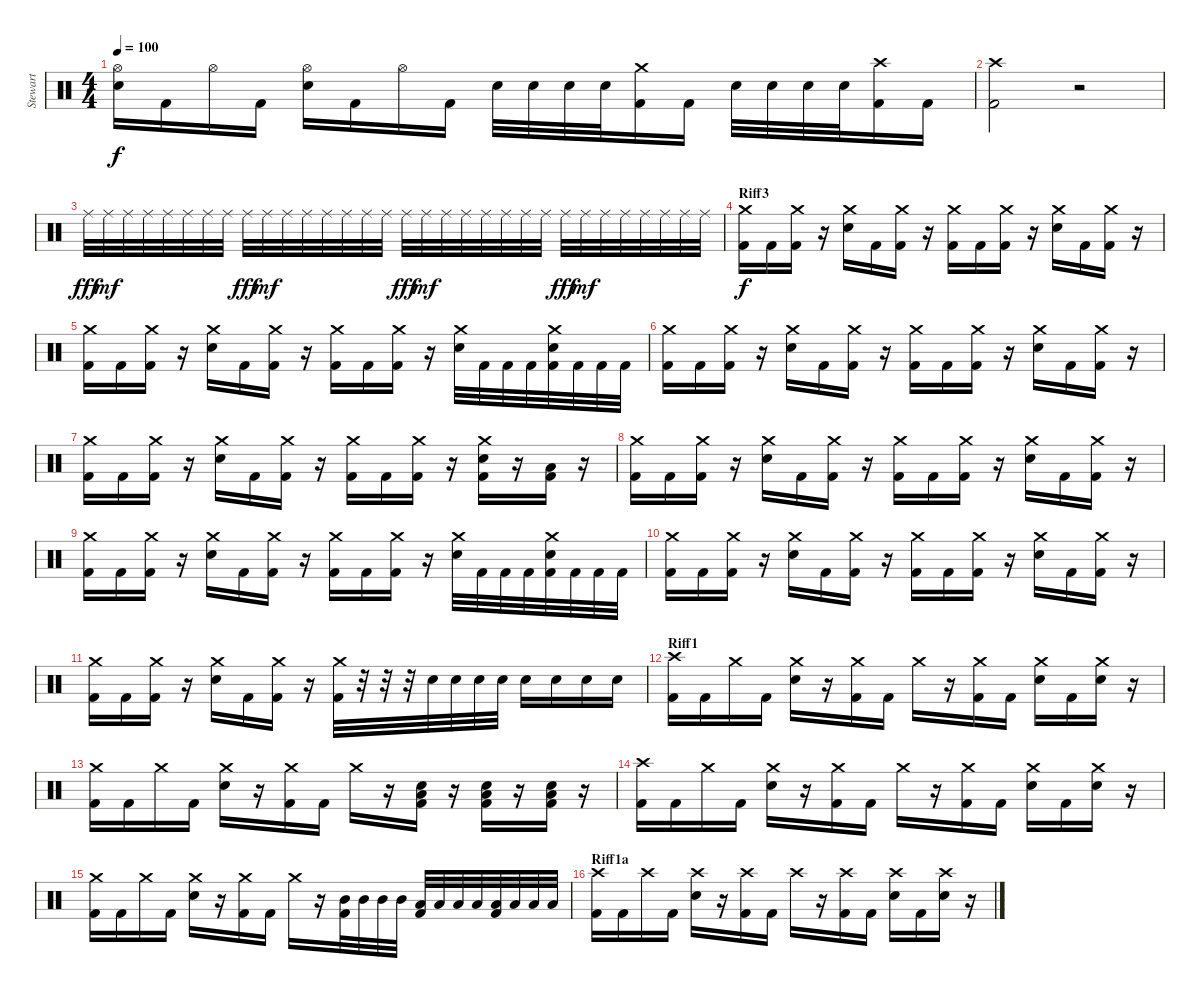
\track ("Stewart" "Stewart") {instrument percussion}
\staff {score}
\articulation defaults
\ts (4 4)
\tempo 100
\clef neutral
\ks c
("Hi-Hat (open)" "Snare (hit) 2").16{dy f} "Kick (hit) 2".16 "Hi-Hat (open)".16 "Kick (hit) 2".16 ("Hi-Hat (open)" "Snare (hit) 2").16 "Kick (hit) 2".16 "Hi-Hat (open)".16 "Kick (hit) 2".16 "Snare (hit) 2".32 "Snare (hit) 2".32 "Snare (hit) 2".32 "Snare (hit) 2".32 ("Crash medium (hit)" "Kick (hit) 2").16 "Kick (hit) 2".16 "Snare (hit) 2".32 "Snare (hit) 2".32 "Snare (hit) 2".32 "Snare (hit) 2".32 ("Crash high (hit)" "Kick (hit) 2").16 "Kick (hit) 2".16 |
("Crash high (hit)" "Kick (hit) 2").2 r.2 |
"Ride (middle)".32{dy fff} "Ride (middle)".32{dy mf} "Ride (middle)".32 "Ride (middle)".32 "Ride (middle)".32 "Ride (middle)".32 "Ride (middle)".32 "Ride (middle)".32 "Ride (middle)".32{dy fff} "Ride (middle)".32{dy mf} "Ride (middle)".32 "Ride (middle)".32 "Ride (middle)".32 "Ride (middle)".32 "Ride (middle)".32 "Ride (middle)".32 "Ride (middle)".32{dy fff} "Ride (middle)".32{dy mf} "Ride (middle)".32 "Ride (middle)".32 "Ride (middle)".32 "Ride (middle)".32 "Ride (middle)".32 "Ride (middle)".32 "Ride (middle)".32{dy fff} "Ride (middle)".32{dy mf} "Ride (middle)".32 "Ride (middle)".32 "Ride (middle)".32 "Ride (middle)".32 "Ride (middle)".32 "Ride (middle)".32 |
\section ("" "Riff3")
("Crash medium (hit)" "Kick (hit) 2").16{dy f} "Kick (hit) 2".16 ("Crash medium (hit)" "Kick (hit) 2").16 r.16 ("Crash medium (hit)" "Snare (hit) 2").16 "Kick (hit) 2".16 ("Crash medium (hit)" "Kick (hit) 2").16 r.16 ("Crash medium (hit)" "Kick (hit) 2").16 "Kick (hit) 2".16 ("Crash medium (hit)" "Kick (hit) 2").16 r.16 ("Crash medium (hit)" "Snare (hit) 2").16 "Kick (hit) 2".16 ("Crash medium (hit)" "Kick (hit) 2").16 r.16 |
("Crash medium (hit)" "Kick (hit) 2").16 "Kick (hit) 2".16 ("Crash medium (hit)" "Kick (hit) 2").16 r.16 ("Crash medium (hit)" "Snare (hit) 2").16 "Kick (hit) 2".16 ("Crash medium (hit)" "Kick (hit) 2").16 r.16 ("Crash medium (hit)" "Kick (hit) 2").16 "Kick (hit) 2".16 ("Crash medium (hit)" "Kick (hit) 2").16 r.16 ("Crash medium (hit)" "Snare (hit) 2").32 "Kick (hit) 2".32 "Kick (hit) 2".32 "Kick (hit) 2".32 ("Crash medium (hit)" "Snare (hit) 2" "Kick (hit) 2").32 "Kick (hit) 2".32 "Kick (hit) 2".32 "Kick (hit) 2".32 |
("Crash medium (hit)" "Kick (hit) 2").16 "Kick (hit) 2".16 ("Crash medium (hit)" "Kick (hit) 2").16 r.16 ("Crash medium (hit)" "Snare (hit) 2").16 "Kick (hit) 2".16 ("Crash medium (hit)" "Kick (hit) 2").16 r.16 ("Crash medium (hit)" "Kick (hit) 2").16 "Kick (hit) 2".16 ("Crash medium (hit)" "Kick (hit) 2").16 r.16 ("Crash medium (hit)" "Snare (hit) 2").16 "Kick (hit) 2".16 ("Crash medium (hit)" "Kick (hit) 2").16 r.16 |
("Crash medium (hit)" "Kick (hit) 2").16 "Kick (hit) 2".16 ("Crash medium (hit)" "Kick (hit) 2").16 r.16 ("Crash medium (hit)" "Snare (hit) 2").16 "Kick (hit) 2".16 ("Crash medium (hit)" "Kick (hit) 2").16 r.16 ("Crash medium (hit)" "Kick (hit) 2").16 "Kick (hit) 2".16 ("Crash medium (hit)" "Kick (hit) 2").16 r.16 ("Crash medium (hit)" "Snare (hit) 2" "Kick (hit) 2").16 r.16 ("Low Floor Tom (hit)" "Kick (hit) 2").16 r.16 |
("Crash medium (hit)" "Kick (hit) 2").16 "Kick (hit) 2".16 ("Crash medium (hit)" "Kick (hit) 2").16 r.16 ("Crash medium (hit)" "Snare (hit) 2").16 "Kick (hit) 2".16 ("Crash medium (hit)" "Kick (hit) 2").16 r.16 ("Crash medium (hit)" "Kick (hit) 2").16 "Kick (hit) 2".16 ("Crash medium (hit)" "Kick (hit) 2").16 r.16 ("Crash medium (hit)" "Snare (hit) 2").16 "Kick (hit) 2".16 ("Crash medium (hit)" "Kick (hit) 2").16 r.16 |
("Crash medium (hit)" "Kick (hit) 2").16 "Kick (hit) 2".16 ("Crash medium (hit)" "Kick (hit) 2").16 r.16 ("Crash medium (hit)" "Snare (hit) 2").16 "Kick (hit) 2".16 ("Crash medium (hit)" "Kick (hit) 2").16 r.16 ("Crash medium (hit)" "Kick (hit) 2").16 "Kick (hit) 2".16 ("Crash medium (hit)" "Kick (hit) 2").16 r.16 ("Crash medium (hit)" "Snare (hit) 2").32 "Kick (hit) 2".32 "Kick (hit) 2".32 "Kick (hit) 2".32 ("Crash medium (hit)" "Snare (hit) 2" "Kick (hit) 2").32 "Kick (hit) 2".32 "Kick (hit) 2".32 "Kick (hit) 2".32 |
("Crash medium (hit)" "Kick (hit) 2").16 "Kick (hit) 2".16 ("Crash medium (hit)" "Kick (hit) 2").16 r.16 ("Crash medium (hit)" "Snare (hit) 2").16 "Kick (hit) 2".16 ("Crash medium (hit)" "Kick (hit) 2").16 r.16 ("Crash medium (hit)" "Kick (hit) 2").16 "Kick (hit) 2".16 ("Crash medium (hit)" "Kick (hit) 2").16 r.16 ("Crash medium (hit)" "Snare (hit) 2").16 "Kick (hit) 2".16 ("Crash medium (hit)" "Kick (hit) 2").16 r.16 |
("Crash medium (hit)" "Kick (hit) 2").16 "Kick (hit) 2".16 ("Crash medium (hit)" "Kick (hit) 2").16 r.16 ("Crash medium (hit)" "Snare (hit) 2").16 "Kick (hit) 2".16 ("Crash medium (hit)" "Kick (hit) 2").16 r.16 ("Crash medium (hit)" "Kick (hit) 2").32 r.32 r.32 r.32 "Snare (hit) 2".32 "Snare (hit) 2".32 "Snare (hit) 2".32 "Snare (hit) 2".32 "Snare (hit) 2".16 "Snare (hit) 2".16 "Snare (hit) 2".16 "Snare (hit) 2".16 |
\section ("" "Riff1")
("Crash high (hit)" "Kick (hit) 2").16 "Kick (hit) 2".16 "Crash medium (hit)".16 "Kick (hit) 2".16 ("Crash medium (hit)" "Snare (hit) 2").16 r.16 ("Crash medium (hit)" "Kick (hit) 2").16 "Kick (hit) 2".16 "Crash medium (hit)".16 r.16 ("Crash medium (hit)" "Kick (hit) 2").16 "Kick (hit) 2".16 ("Crash medium (hit)" "Snare (hit) 2").16 "Kick (hit) 2".16 ("Crash medium (hit)" "Snare (hit) 2").16 r.16 |
("Crash medium (hit)" "Kick (hit) 2").16 "Kick (hit) 2".16 "Crash medium (hit)".16 "Kick (hit) 2".16 ("Crash medium (hit)" "Snare (hit) 2").16 r.16 ("Crash medium (hit)" "Kick (hit) 2").16 "Kick (hit) 2".16 "Crash medium (hit)".16 r.16 ("Snare (hit) 2" "Low Floor Tom (hit)" "Kick (hit) 2").16 r.16 ("Low Floor Tom (hit)" "Kick (hit) 2" "Snare (hit) 2").16 r.16 ("Low Floor Tom (hit)" "Kick (hit) 2" "Snare (hit) 2").16 r.16 |
("Crash high (hit)" "Kick (hit) 2").16 "Kick (hit) 2".16 "Crash medium (hit)".16 "Kick (hit) 2".16 ("Crash medium (hit)" "Snare (hit) 2").16 r.16 ("Crash medium (hit)" "Kick (hit) 2").16 "Kick (hit) 2".16 "Crash medium (hit)".16 r.16 ("Crash medium (hit)" "Kick (hit) 2").16 "Kick (hit) 2".16 ("Crash medium (hit)" "Snare (hit) 2").16 "Kick (hit) 2".16 ("Crash medium (hit)" "Snare (hit) 2").16 r.16 |
("Crash medium (hit)" "Kick (hit) 2").16 "Kick (hit) 2".16 "Crash medium (hit)".16 "Kick (hit) 2".16 ("Crash medium (hit)" "Snare (hit) 2").16 r.16 ("Crash medium (hit)" "Kick (hit) 2").16 "Kick (hit) 2".16 "Crash medium (hit)".16 r.16 ("Mid Tom (hit)" "Kick (hit) 2").32 "Mid Tom (hit)".32 "Mid Tom (hit)".32 "Mid Tom (hit)".32 ("Low Tom (hit)" "Kick (hit) 2").32 "Low Tom (hit)".32 "Low Tom (hit)".32 "Low Tom (hit)".32 ("Low Floor Tom (hit)" "Kick (hit) 2").32 "Low Floor Tom (hit)".32 "Low Floor Tom (hit)".32 "Low Floor Tom (hit)".32 |
\section ("" "Riff1a")
("Crash high (hit)" "Kick (hit) 2").16 "Kick (hit) 2".16 "Crash high (hit)".16 "Kick (hit) 2".16 ("Crash high (hit)" "Snare (hit) 2").16 r.16 ("Crash high (hit)" "Kick (hit) 2").16 "Kick (hit) 2".16 "Crash high (hit)".16 r.16 ("Crash high (hit)" "Kick (hit) 2").16 "Kick (hit) 2".16 ("Crash high (hit)" "Snare (hit) 2").16 "Kick (hit) 2".16 ("Crash high (hit)" "Snare (hit) 2").16 r.16
